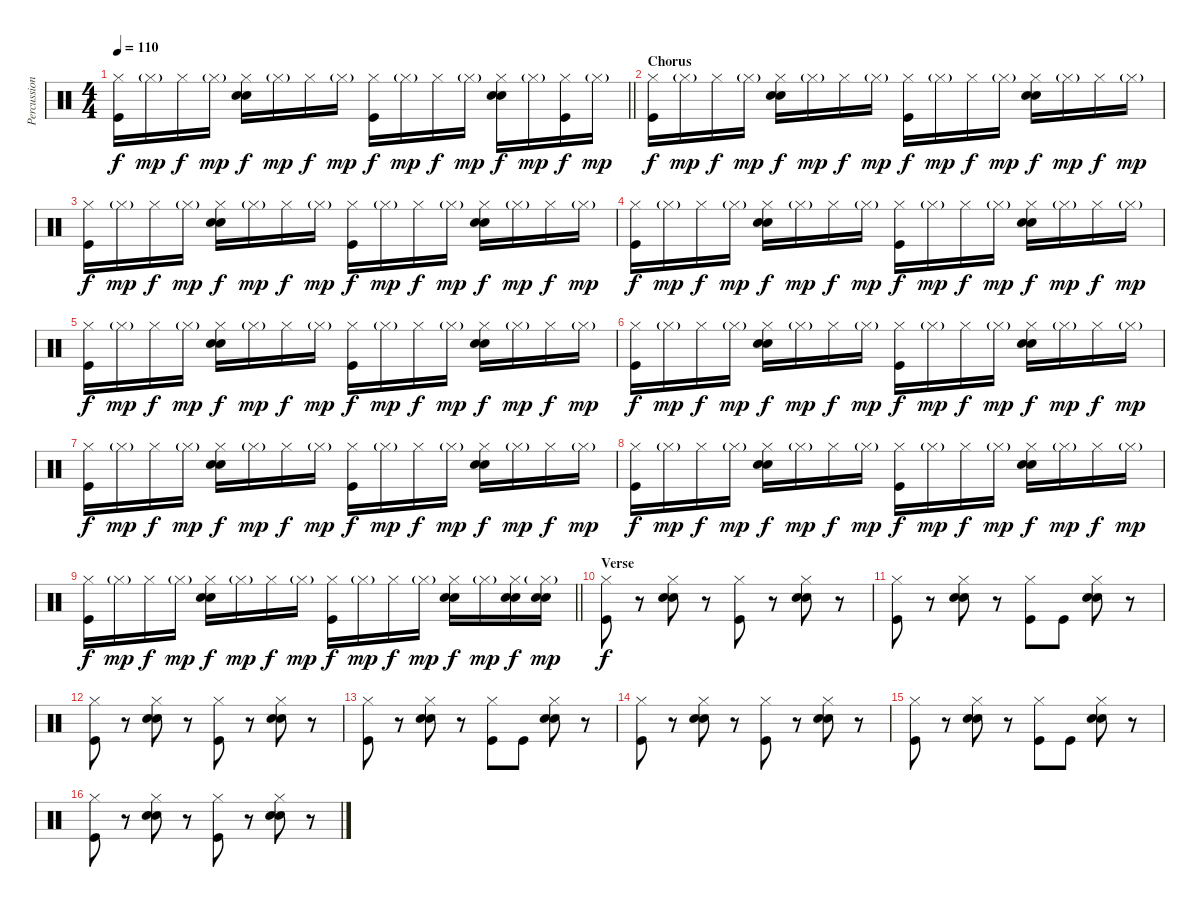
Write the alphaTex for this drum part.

\track ("Percussion" "Percussion") {instrument percussion}
\staff {score}
\articulation defaults
\ts (4 4)
\tempo 110
\clef neutral
\barLineRight lightlight
\ks c
("Hi-Hat (closed)" "Kick (hit)").16{dy f} "Hi-Hat (closed)"{g}.16{dy mp} "Hi-Hat (closed)".16{dy f} "Hi-Hat (closed)"{g}.16{dy mp} ("Hi-Hat (closed)" "Hand Clap (hit)" "Snare (hit) 2").16{dy f} "Hi-Hat (closed)"{g}.16{dy mp} "Hi-Hat (closed)".16{dy f} "Hi-Hat (closed)"{g}.16{dy mp} ("Hi-Hat (closed)" "Kick (hit)").16{dy f} "Hi-Hat (closed)"{g}.16{dy mp} "Hi-Hat (closed)".16{dy f} "Hi-Hat (closed)"{g}.16{dy mp} ("Hi-Hat (closed)" "Hand Clap (hit)" "Snare (hit) 2").16{dy f} "Hi-Hat (closed)"{g}.16{dy mp} ("Hi-Hat (closed)" "Kick (hit)").16{dy f} "Hi-Hat (closed)"{g}.16{dy mp} |
\section ("" "Chorus")
("Hi-Hat (closed)" "Kick (hit)").16{dy f} "Hi-Hat (closed)"{g}.16{dy mp} "Hi-Hat (closed)".16{dy f} "Hi-Hat (closed)"{g}.16{dy mp} ("Hi-Hat (closed)" "Hand Clap (hit)" "Snare (hit) 2").16{dy f} "Hi-Hat (closed)"{g}.16{dy mp} "Hi-Hat (closed)".16{dy f} "Hi-Hat (closed)"{g}.16{dy mp} ("Hi-Hat (closed)" "Kick (hit)").16{dy f} "Hi-Hat (closed)"{g}.16{dy mp} "Hi-Hat (closed)".16{dy f} "Hi-Hat (closed)"{g}.16{dy mp} ("Hi-Hat (closed)" "Hand Clap (hit)" "Snare (hit) 2").16{dy f} "Hi-Hat (closed)"{g}.16{dy mp} "Hi-Hat (closed)".16{dy f} "Hi-Hat (closed)"{g}.16{dy mp} |
("Hi-Hat (closed)" "Kick (hit)").16{dy f} "Hi-Hat (closed)"{g}.16{dy mp} "Hi-Hat (closed)".16{dy f} "Hi-Hat (closed)"{g}.16{dy mp} ("Hi-Hat (closed)" "Hand Clap (hit)" "Snare (hit) 2").16{dy f} "Hi-Hat (closed)"{g}.16{dy mp} "Hi-Hat (closed)".16{dy f} "Hi-Hat (closed)"{g}.16{dy mp} ("Hi-Hat (closed)" "Kick (hit)").16{dy f} "Hi-Hat (closed)"{g}.16{dy mp} "Hi-Hat (closed)".16{dy f} "Hi-Hat (closed)"{g}.16{dy mp} ("Hi-Hat (closed)" "Hand Clap (hit)" "Snare (hit) 2").16{dy f} "Hi-Hat (closed)"{g}.16{dy mp} "Hi-Hat (closed)".16{dy f} "Hi-Hat (closed)"{g}.16{dy mp} |
("Hi-Hat (closed)" "Kick (hit)").16{dy f} "Hi-Hat (closed)"{g}.16{dy mp} "Hi-Hat (closed)".16{dy f} "Hi-Hat (closed)"{g}.16{dy mp} ("Hi-Hat (closed)" "Hand Clap (hit)" "Snare (hit) 2").16{dy f} "Hi-Hat (closed)"{g}.16{dy mp} "Hi-Hat (closed)".16{dy f} "Hi-Hat (closed)"{g}.16{dy mp} ("Hi-Hat (closed)" "Kick (hit)").16{dy f} "Hi-Hat (closed)"{g}.16{dy mp} "Hi-Hat (closed)".16{dy f} "Hi-Hat (closed)"{g}.16{dy mp} ("Hi-Hat (closed)" "Hand Clap (hit)" "Snare (hit) 2").16{dy f} "Hi-Hat (closed)"{g}.16{dy mp} "Hi-Hat (closed)".16{dy f} "Hi-Hat (closed)"{g}.16{dy mp} |
("Hi-Hat (closed)" "Kick (hit)").16{dy f} "Hi-Hat (closed)"{g}.16{dy mp} "Hi-Hat (closed)".16{dy f} "Hi-Hat (closed)"{g}.16{dy mp} ("Hi-Hat (closed)" "Hand Clap (hit)" "Snare (hit) 2").16{dy f} "Hi-Hat (closed)"{g}.16{dy mp} "Hi-Hat (closed)".16{dy f} "Hi-Hat (closed)"{g}.16{dy mp} ("Hi-Hat (closed)" "Kick (hit)").16{dy f} "Hi-Hat (closed)"{g}.16{dy mp} "Hi-Hat (closed)".16{dy f} "Hi-Hat (closed)"{g}.16{dy mp} ("Hi-Hat (closed)" "Hand Clap (hit)" "Snare (hit) 2").16{dy f} "Hi-Hat (closed)"{g}.16{dy mp} "Hi-Hat (closed)".16{dy f} "Hi-Hat (closed)"{g}.16{dy mp} |
("Hi-Hat (closed)" "Kick (hit)").16{dy f} "Hi-Hat (closed)"{g}.16{dy mp} "Hi-Hat (closed)".16{dy f} "Hi-Hat (closed)"{g}.16{dy mp} ("Hi-Hat (closed)" "Hand Clap (hit)" "Snare (hit) 2").16{dy f} "Hi-Hat (closed)"{g}.16{dy mp} "Hi-Hat (closed)".16{dy f} "Hi-Hat (closed)"{g}.16{dy mp} ("Hi-Hat (closed)" "Kick (hit)").16{dy f} "Hi-Hat (closed)"{g}.16{dy mp} "Hi-Hat (closed)".16{dy f} "Hi-Hat (closed)"{g}.16{dy mp} ("Hi-Hat (closed)" "Hand Clap (hit)" "Snare (hit) 2").16{dy f} "Hi-Hat (closed)"{g}.16{dy mp} "Hi-Hat (closed)".16{dy f} "Hi-Hat (closed)"{g}.16{dy mp} |
("Hi-Hat (closed)" "Kick (hit)").16{dy f} "Hi-Hat (closed)"{g}.16{dy mp} "Hi-Hat (closed)".16{dy f} "Hi-Hat (closed)"{g}.16{dy mp} ("Hi-Hat (closed)" "Hand Clap (hit)" "Snare (hit) 2").16{dy f} "Hi-Hat (closed)"{g}.16{dy mp} "Hi-Hat (closed)".16{dy f} "Hi-Hat (closed)"{g}.16{dy mp} ("Hi-Hat (closed)" "Kick (hit)").16{dy f} "Hi-Hat (closed)"{g}.16{dy mp} "Hi-Hat (closed)".16{dy f} "Hi-Hat (closed)"{g}.16{dy mp} ("Hi-Hat (closed)" "Hand Clap (hit)" "Snare (hit) 2").16{dy f} "Hi-Hat (closed)"{g}.16{dy mp} "Hi-Hat (closed)".16{dy f} "Hi-Hat (closed)"{g}.16{dy mp} |
("Hi-Hat (closed)" "Kick (hit)").16{dy f} "Hi-Hat (closed)"{g}.16{dy mp} "Hi-Hat (closed)".16{dy f} "Hi-Hat (closed)"{g}.16{dy mp} ("Hi-Hat (closed)" "Hand Clap (hit)" "Snare (hit) 2").16{dy f} "Hi-Hat (closed)"{g}.16{dy mp} "Hi-Hat (closed)".16{dy f} "Hi-Hat (closed)"{g}.16{dy mp} ("Hi-Hat (closed)" "Kick (hit)").16{dy f} "Hi-Hat (closed)"{g}.16{dy mp} "Hi-Hat (closed)".16{dy f} "Hi-Hat (closed)"{g}.16{dy mp} ("Hi-Hat (closed)" "Hand Clap (hit)" "Snare (hit) 2").16{dy f} "Hi-Hat (closed)"{g}.16{dy mp} "Hi-Hat (closed)".16{dy f} "Hi-Hat (closed)"{g}.16{dy mp} |
\barLineRight lightlight
("Hi-Hat (closed)" "Kick (hit)").16{dy f} "Hi-Hat (closed)"{g}.16{dy mp} "Hi-Hat (closed)".16{dy f} "Hi-Hat (closed)"{g}.16{dy mp} ("Hi-Hat (closed)" "Hand Clap (hit)" "Snare (hit) 2").16{dy f} "Hi-Hat (closed)"{g}.16{dy mp} "Hi-Hat (closed)".16{dy f} "Hi-Hat (closed)"{g}.16{dy mp} ("Hi-Hat (closed)" "Kick (hit)").16{dy f} "Hi-Hat (closed)"{g}.16{dy mp} "Hi-Hat (closed)".16{dy f} "Hi-Hat (closed)"{g}.16{dy mp} ("Hi-Hat (closed)" "Hand Clap (hit)" "Snare (hit) 2").16{dy f} "Hi-Hat (closed)"{g}.16{dy mp} ("Hi-Hat (closed)" "Hand Clap (hit)" "Snare (hit) 2").16{dy f} ("Hi-Hat (closed)"{g} "Hand Clap (hit)" "Snare (hit) 2").16{dy mp} |
\section ("" "Verse")
("Hi-Hat (closed)" "Kick (hit)").8{dy f} r.8 ("Hi-Hat (closed)" "Hand Clap (hit)" "Snare (hit) 2").8 r.8 ("Hi-Hat (closed)" "Kick (hit)").8 r.8 ("Hi-Hat (closed)" "Hand Clap (hit)" "Snare (hit) 2").8 r.8 |
("Hi-Hat (closed)" "Kick (hit)").8 r.8 ("Hi-Hat (closed)" "Hand Clap (hit)" "Snare (hit) 2").8 r.8 ("Hi-Hat (closed)" "Kick (hit)").8 "Kick (hit)".8 ("Hi-Hat (closed)" "Hand Clap (hit)" "Snare (hit) 2").8 r.8 |
("Hi-Hat (closed)" "Kick (hit)").8 r.8 ("Hi-Hat (closed)" "Hand Clap (hit)" "Snare (hit) 2").8 r.8 ("Hi-Hat (closed)" "Kick (hit)").8 r.8 ("Hi-Hat (closed)" "Hand Clap (hit)" "Snare (hit) 2").8 r.8 |
("Hi-Hat (closed)" "Kick (hit)").8 r.8 ("Hi-Hat (closed)" "Hand Clap (hit)" "Snare (hit) 2").8 r.8 ("Hi-Hat (closed)" "Kick (hit)").8 "Kick (hit)".8 ("Hi-Hat (closed)" "Hand Clap (hit)" "Snare (hit) 2").8 r.8 |
("Hi-Hat (closed)" "Kick (hit)").8 r.8 ("Hi-Hat (closed)" "Hand Clap (hit)" "Snare (hit) 2").8 r.8 ("Hi-Hat (closed)" "Kick (hit)").8 r.8 ("Hi-Hat (closed)" "Hand Clap (hit)" "Snare (hit) 2").8 r.8 |
("Hi-Hat (closed)" "Kick (hit)").8 r.8 ("Hi-Hat (closed)" "Hand Clap (hit)" "Snare (hit) 2").8 r.8 ("Hi-Hat (closed)" "Kick (hit)").8 "Kick (hit)".8 ("Hi-Hat (closed)" "Hand Clap (hit)" "Snare (hit) 2").8 r.8 |
("Hi-Hat (closed)" "Kick (hit)").8 r.8 ("Hi-Hat (closed)" "Hand Clap (hit)" "Snare (hit) 2").8 r.8 ("Hi-Hat (closed)" "Kick (hit)").8 r.8 ("Hi-Hat (closed)" "Hand Clap (hit)" "Snare (hit) 2").8 r.8
